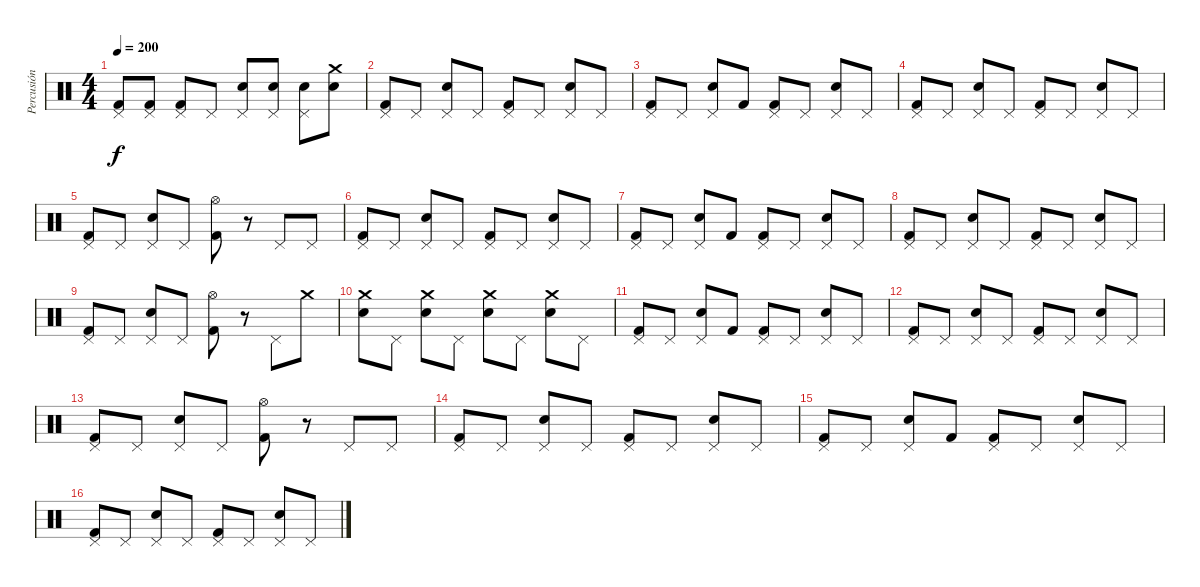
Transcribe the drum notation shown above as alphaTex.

\track ("Percusión" "Percusión") {instrument percussion}
\staff {score}
\articulation defaults
\ts (4 4)
\tempo 200
\clef neutral
\ks c
("Kick (hit) 2" "Pedal Hi-Hat (hit)").8{dy f} ("Kick (hit) 2" "Pedal Hi-Hat (hit)").8 ("Kick (hit) 2" "Pedal Hi-Hat (hit)").8 "Pedal Hi-Hat (hit)".8 ("Electric Snare (hit)" "Pedal Hi-Hat (hit)").8 ("Electric Snare (hit)" "Pedal Hi-Hat (hit)").8 ("Electric Snare (hit)" "Pedal Hi-Hat (hit)").8 ("Electric Snare (hit)" "Crash medium (hit)").8 |
("Kick (hit) 2" "Pedal Hi-Hat (hit)").8 "Pedal Hi-Hat (hit)".8 ("Electric Snare (hit)" "Pedal Hi-Hat (hit)").8 "Pedal Hi-Hat (hit)".8 ("Kick (hit) 2" "Pedal Hi-Hat (hit)").8 "Pedal Hi-Hat (hit)".8 ("Electric Snare (hit)" "Pedal Hi-Hat (hit)").8 "Pedal Hi-Hat (hit)".8 |
("Kick (hit) 2" "Pedal Hi-Hat (hit)").8 "Pedal Hi-Hat (hit)".8 ("Electric Snare (hit)" "Pedal Hi-Hat (hit)").8 "Kick (hit) 2".8 ("Kick (hit) 2" "Pedal Hi-Hat (hit)").8 "Pedal Hi-Hat (hit)".8 ("Electric Snare (hit)" "Pedal Hi-Hat (hit)").8 "Pedal Hi-Hat (hit)".8 |
("Kick (hit) 2" "Pedal Hi-Hat (hit)").8 "Pedal Hi-Hat (hit)".8 ("Electric Snare (hit)" "Pedal Hi-Hat (hit)").8 "Pedal Hi-Hat (hit)".8 ("Kick (hit) 2" "Pedal Hi-Hat (hit)").8 "Pedal Hi-Hat (hit)".8 ("Electric Snare (hit)" "Pedal Hi-Hat (hit)").8 "Pedal Hi-Hat (hit)".8 |
("Kick (hit) 2" "Pedal Hi-Hat (hit)").8 "Pedal Hi-Hat (hit)".8 ("Electric Snare (hit)" "Pedal Hi-Hat (hit)").8 "Pedal Hi-Hat (hit)".8 ("Kick (hit) 2" "Hi-Hat (open)").8 r.8 "Pedal Hi-Hat (hit)".8 "Pedal Hi-Hat (hit)".8 |
("Kick (hit) 2" "Pedal Hi-Hat (hit)").8 "Pedal Hi-Hat (hit)".8 ("Electric Snare (hit)" "Pedal Hi-Hat (hit)").8 "Pedal Hi-Hat (hit)".8 ("Kick (hit) 2" "Pedal Hi-Hat (hit)").8 "Pedal Hi-Hat (hit)".8 ("Electric Snare (hit)" "Pedal Hi-Hat (hit)").8 "Pedal Hi-Hat (hit)".8 |
("Kick (hit) 2" "Pedal Hi-Hat (hit)").8 "Pedal Hi-Hat (hit)".8 ("Electric Snare (hit)" "Pedal Hi-Hat (hit)").8 "Kick (hit) 2".8 ("Kick (hit) 2" "Pedal Hi-Hat (hit)").8 "Pedal Hi-Hat (hit)".8 ("Electric Snare (hit)" "Pedal Hi-Hat (hit)").8 "Pedal Hi-Hat (hit)".8 |
("Kick (hit) 2" "Pedal Hi-Hat (hit)").8 "Pedal Hi-Hat (hit)".8 ("Electric Snare (hit)" "Pedal Hi-Hat (hit)").8 "Pedal Hi-Hat (hit)".8 ("Kick (hit) 2" "Pedal Hi-Hat (hit)").8 "Pedal Hi-Hat (hit)".8 ("Electric Snare (hit)" "Pedal Hi-Hat (hit)").8 "Pedal Hi-Hat (hit)".8 |
("Kick (hit) 2" "Pedal Hi-Hat (hit)").8 "Pedal Hi-Hat (hit)".8 ("Electric Snare (hit)" "Pedal Hi-Hat (hit)").8 "Pedal Hi-Hat (hit)".8 ("Kick (hit) 2" "Hi-Hat (open)").8 r.8 "Pedal Hi-Hat (hit)".8 "Crash medium (hit)".8 |
("Electric Snare (hit)" "Crash medium (hit)").8 "Pedal Hi-Hat (hit)".8 ("Electric Snare (hit)" "Crash medium (hit)").8 "Pedal Hi-Hat (hit)".8 ("Electric Snare (hit)" "Crash medium (hit)").8 "Pedal Hi-Hat (hit)".8 ("Electric Snare (hit)" "Crash medium (hit)").8 "Pedal Hi-Hat (hit)".8 |
("Kick (hit) 2" "Pedal Hi-Hat (hit)").8 "Pedal Hi-Hat (hit)".8 ("Electric Snare (hit)" "Pedal Hi-Hat (hit)").8 "Kick (hit) 2".8 ("Kick (hit) 2" "Pedal Hi-Hat (hit)").8 "Pedal Hi-Hat (hit)".8 ("Electric Snare (hit)" "Pedal Hi-Hat (hit)").8 "Pedal Hi-Hat (hit)".8 |
("Kick (hit) 2" "Pedal Hi-Hat (hit)").8 "Pedal Hi-Hat (hit)".8 ("Electric Snare (hit)" "Pedal Hi-Hat (hit)").8 "Pedal Hi-Hat (hit)".8 ("Kick (hit) 2" "Pedal Hi-Hat (hit)").8 "Pedal Hi-Hat (hit)".8 ("Electric Snare (hit)" "Pedal Hi-Hat (hit)").8 "Pedal Hi-Hat (hit)".8 |
("Kick (hit) 2" "Pedal Hi-Hat (hit)").8 "Pedal Hi-Hat (hit)".8 ("Electric Snare (hit)" "Pedal Hi-Hat (hit)").8 "Pedal Hi-Hat (hit)".8 ("Kick (hit) 2" "Hi-Hat (open)").8 r.8 "Pedal Hi-Hat (hit)".8 "Pedal Hi-Hat (hit)".8 |
("Kick (hit) 2" "Pedal Hi-Hat (hit)").8 "Pedal Hi-Hat (hit)".8 ("Electric Snare (hit)" "Pedal Hi-Hat (hit)").8 "Pedal Hi-Hat (hit)".8 ("Kick (hit) 2" "Pedal Hi-Hat (hit)").8 "Pedal Hi-Hat (hit)".8 ("Electric Snare (hit)" "Pedal Hi-Hat (hit)").8 "Pedal Hi-Hat (hit)".8 |
("Kick (hit) 2" "Pedal Hi-Hat (hit)").8 "Pedal Hi-Hat (hit)".8 ("Electric Snare (hit)" "Pedal Hi-Hat (hit)").8 "Kick (hit) 2".8 ("Kick (hit) 2" "Pedal Hi-Hat (hit)").8 "Pedal Hi-Hat (hit)".8 ("Electric Snare (hit)" "Pedal Hi-Hat (hit)").8 "Pedal Hi-Hat (hit)".8 |
("Kick (hit) 2" "Pedal Hi-Hat (hit)").8 "Pedal Hi-Hat (hit)".8 ("Electric Snare (hit)" "Pedal Hi-Hat (hit)").8 "Pedal Hi-Hat (hit)".8 ("Kick (hit) 2" "Pedal Hi-Hat (hit)").8 "Pedal Hi-Hat (hit)".8 ("Electric Snare (hit)" "Pedal Hi-Hat (hit)").8 "Pedal Hi-Hat (hit)".8
